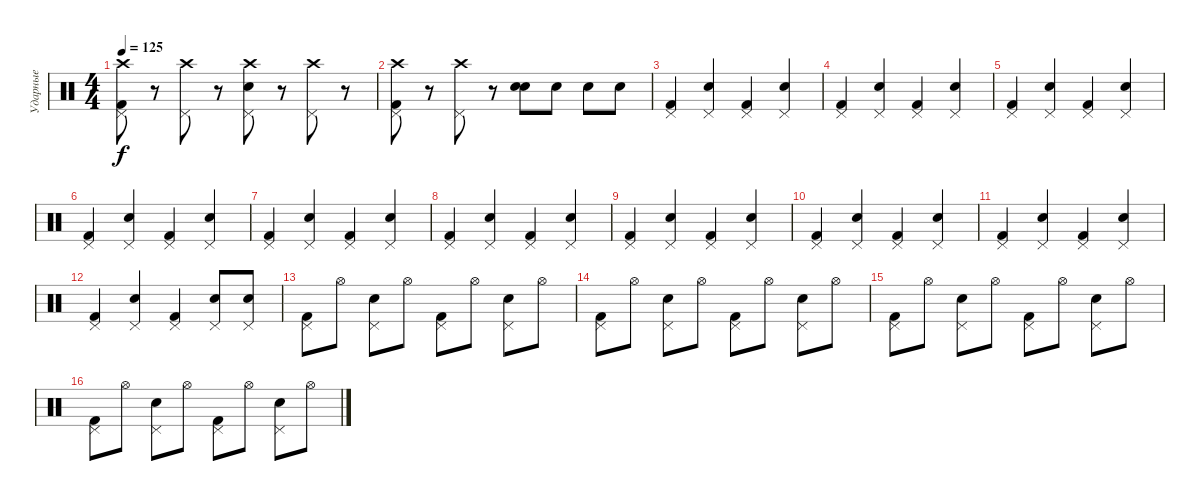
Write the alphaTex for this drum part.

\track ("Ударные" "Ударные") {instrument percussion}
\staff {score}
\articulation defaults
\ts (4 4)
\tempo 125
\clef neutral
\ks c
("Crash high (hit)" "Kick (hit) 2" "Pedal Hi-Hat (hit)").8{dy f} r.8 ("Crash high (hit)" "Pedal Hi-Hat (hit)").8 r.8 ("Crash high (hit)" "Pedal Hi-Hat (hit)" "Snare (hit) 2").8 r.8 ("Crash high (hit)" "Pedal Hi-Hat (hit)").8 r.8 |
("Crash high (hit)" "Kick (hit) 2" "Pedal Hi-Hat (hit)").8 r.8 ("Crash high (hit)" "Pedal Hi-Hat (hit)").8 r.8 ("Snare (hit) 2" "Snare (hit) 2").8 "Snare (hit) 2".8 "Snare (hit) 2".8 "Snare (hit) 2".8 |
("Pedal Hi-Hat (hit)" "Kick (hit) 2").4 ("Pedal Hi-Hat (hit)" "Snare (hit) 2").4 ("Pedal Hi-Hat (hit)" "Kick (hit) 2").4 ("Pedal Hi-Hat (hit)" "Snare (hit) 2").4 |
("Pedal Hi-Hat (hit)" "Kick (hit) 2").4 ("Pedal Hi-Hat (hit)" "Snare (hit) 2").4 ("Pedal Hi-Hat (hit)" "Kick (hit) 2").4 ("Pedal Hi-Hat (hit)" "Snare (hit) 2").4 |
("Pedal Hi-Hat (hit)" "Kick (hit) 2").4 ("Pedal Hi-Hat (hit)" "Snare (hit) 2").4 ("Pedal Hi-Hat (hit)" "Kick (hit) 2").4 ("Pedal Hi-Hat (hit)" "Snare (hit) 2").4 |
("Pedal Hi-Hat (hit)" "Kick (hit) 2").4 ("Pedal Hi-Hat (hit)" "Snare (hit) 2").4 ("Pedal Hi-Hat (hit)" "Kick (hit) 2").4 ("Pedal Hi-Hat (hit)" "Snare (hit) 2").4 |
("Pedal Hi-Hat (hit)" "Kick (hit) 2").4 ("Pedal Hi-Hat (hit)" "Snare (hit) 2").4 ("Pedal Hi-Hat (hit)" "Kick (hit) 2").4 ("Pedal Hi-Hat (hit)" "Snare (hit) 2").4 |
("Pedal Hi-Hat (hit)" "Kick (hit) 2").4 ("Pedal Hi-Hat (hit)" "Snare (hit) 2").4 ("Pedal Hi-Hat (hit)" "Kick (hit) 2").4 ("Pedal Hi-Hat (hit)" "Snare (hit) 2").4 |
("Pedal Hi-Hat (hit)" "Kick (hit) 2").4 ("Pedal Hi-Hat (hit)" "Snare (hit) 2").4 ("Pedal Hi-Hat (hit)" "Kick (hit) 2").4 ("Pedal Hi-Hat (hit)" "Snare (hit) 2").4 |
("Pedal Hi-Hat (hit)" "Kick (hit) 2").4 ("Pedal Hi-Hat (hit)" "Snare (hit) 2").4 ("Pedal Hi-Hat (hit)" "Kick (hit) 2").4 ("Pedal Hi-Hat (hit)" "Snare (hit) 2").4 |
("Pedal Hi-Hat (hit)" "Kick (hit) 2").4 ("Pedal Hi-Hat (hit)" "Snare (hit) 2").4 ("Pedal Hi-Hat (hit)" "Kick (hit) 2").4 ("Pedal Hi-Hat (hit)" "Snare (hit) 2").4 |
("Pedal Hi-Hat (hit)" "Kick (hit) 2").4 ("Pedal Hi-Hat (hit)" "Snare (hit) 2").4 ("Pedal Hi-Hat (hit)" "Kick (hit) 2").4 ("Pedal Hi-Hat (hit)" "Snare (hit) 2").8 ("Pedal Hi-Hat (hit)" "Snare (hit) 2").8 |
("Pedal Hi-Hat (hit)" "Kick (hit) 2").8 "Hi-Hat (open)".8 ("Pedal Hi-Hat (hit)" "Snare (hit) 2").8 "Hi-Hat (open)".8 ("Pedal Hi-Hat (hit)" "Kick (hit) 2").8 "Hi-Hat (open)".8 ("Pedal Hi-Hat (hit)" "Snare (hit) 2").8 "Hi-Hat (open)".8 |
("Pedal Hi-Hat (hit)" "Kick (hit) 2").8 "Hi-Hat (open)".8 ("Pedal Hi-Hat (hit)" "Snare (hit) 2").8 "Hi-Hat (open)".8 ("Pedal Hi-Hat (hit)" "Kick (hit) 2").8 "Hi-Hat (open)".8 ("Pedal Hi-Hat (hit)" "Snare (hit) 2").8 "Hi-Hat (open)".8 |
("Pedal Hi-Hat (hit)" "Kick (hit) 2").8 "Hi-Hat (open)".8 ("Pedal Hi-Hat (hit)" "Snare (hit) 2").8 "Hi-Hat (open)".8 ("Pedal Hi-Hat (hit)" "Kick (hit) 2").8 "Hi-Hat (open)".8 ("Pedal Hi-Hat (hit)" "Snare (hit) 2").8 "Hi-Hat (open)".8 |
("Pedal Hi-Hat (hit)" "Kick (hit) 2").8 "Hi-Hat (open)".8 ("Pedal Hi-Hat (hit)" "Snare (hit) 2").8 "Hi-Hat (open)".8 ("Pedal Hi-Hat (hit)" "Kick (hit) 2").8 "Hi-Hat (open)".8 ("Pedal Hi-Hat (hit)" "Snare (hit) 2").8 "Hi-Hat (open)".8
